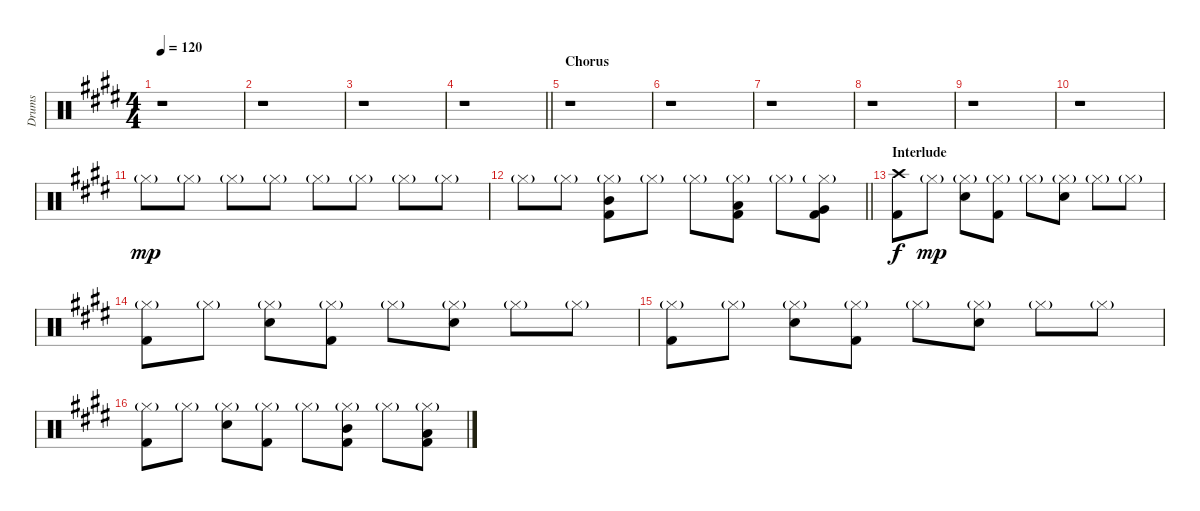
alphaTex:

\track ("Drums" "Drums") {instrument percussion}
\staff {score}
\articulation defaults
\ts (4 4)
\tempo 120
\clef neutral
\ks e
r.1{dy mp} |
r.1 |
r.1 |
\barLineRight lightlight
r.1 |
\section ("" "Chorus")
r.1 |
r.1 |
r.1 |
r.1 |
r.1 |
r.1 |
"Hi-Hat (closed)"{g}.8 "Hi-Hat (closed)"{g}.8 "Hi-Hat (closed)"{g}.8 "Hi-Hat (closed)"{g}.8 "Hi-Hat (closed)"{g}.8 "Hi-Hat (closed)"{g}.8 "Hi-Hat (closed)"{g}.8 "Hi-Hat (closed)"{g}.8 |
\barLineRight lightlight "Hi-Hat (closed)"{g}.8 "Hi-Hat (closed)"{g}.8
("Hi-Hat (closed)"{g} "Mid Tom (hit)" "Kick (hit) 2").8 "Hi-Hat (closed)"{g}.8 "Hi-Hat (closed)"{g}.8 ("Hi-Hat (closed)"{g} "Low Tom (hit)" "Kick (hit) 2").8 "Hi-Hat (closed)"{g}.8 ("Hi-Hat (closed)"{g} "Very Low Tom (hit)" "Kick (hit) 2").8 |
\section ("" "Interlude")
("Crash high (hit)" "Kick (hit) 2").8{dy f} "Hi-Hat (closed)"{g}.8{dy mp} ("Hi-Hat (closed)"{g} "Snare (hit) 2").8 ("Hi-Hat (closed)"{g} "Kick (hit) 2").8 "Hi-Hat (closed)"{g}.8 ("Hi-Hat (closed)"{g} "Snare (hit) 2").8 "Hi-Hat (closed)"{g}.8 "Hi-Hat (closed)"{g}.8 |
("Hi-Hat (closed)"{g} "Kick (hit) 2").8 "Hi-Hat (closed)"{g}.8 ("Hi-Hat (closed)"{g} "Snare (hit) 2").8 ("Hi-Hat (closed)"{g} "Kick (hit) 2").8 "Hi-Hat (closed)"{g}.8 ("Hi-Hat (closed)"{g} "Snare (hit) 2").8 "Hi-Hat (closed)"{g}.8 "Hi-Hat (closed)"{g}.8 |
("Hi-Hat (closed)"{g} "Kick (hit) 2").8 "Hi-Hat (closed)"{g}.8 ("Hi-Hat (closed)"{g} "Snare (hit) 2").8 ("Hi-Hat (closed)"{g} "Kick (hit) 2").8 "Hi-Hat (closed)"{g}.8 ("Hi-Hat (closed)"{g} "Snare (hit) 2").8 "Hi-Hat (closed)"{g}.8 "Hi-Hat (closed)"{g}.8 |
("Hi-Hat (closed)"{g} "Kick (hit) 2").8 "Hi-Hat (closed)"{g}.8 ("Hi-Hat (closed)"{g} "Snare (hit) 2").8 ("Hi-Hat (closed)"{g} "Kick (hit) 2").8 "Hi-Hat (closed)"{g}.8 ("Hi-Hat (closed)"{g} "Mid Tom (hit)" "Kick (hit) 2").8 "Hi-Hat (closed)"{g}.8 ("Hi-Hat (closed)"{g} "Low Tom (hit)" "Kick (hit) 2").8
